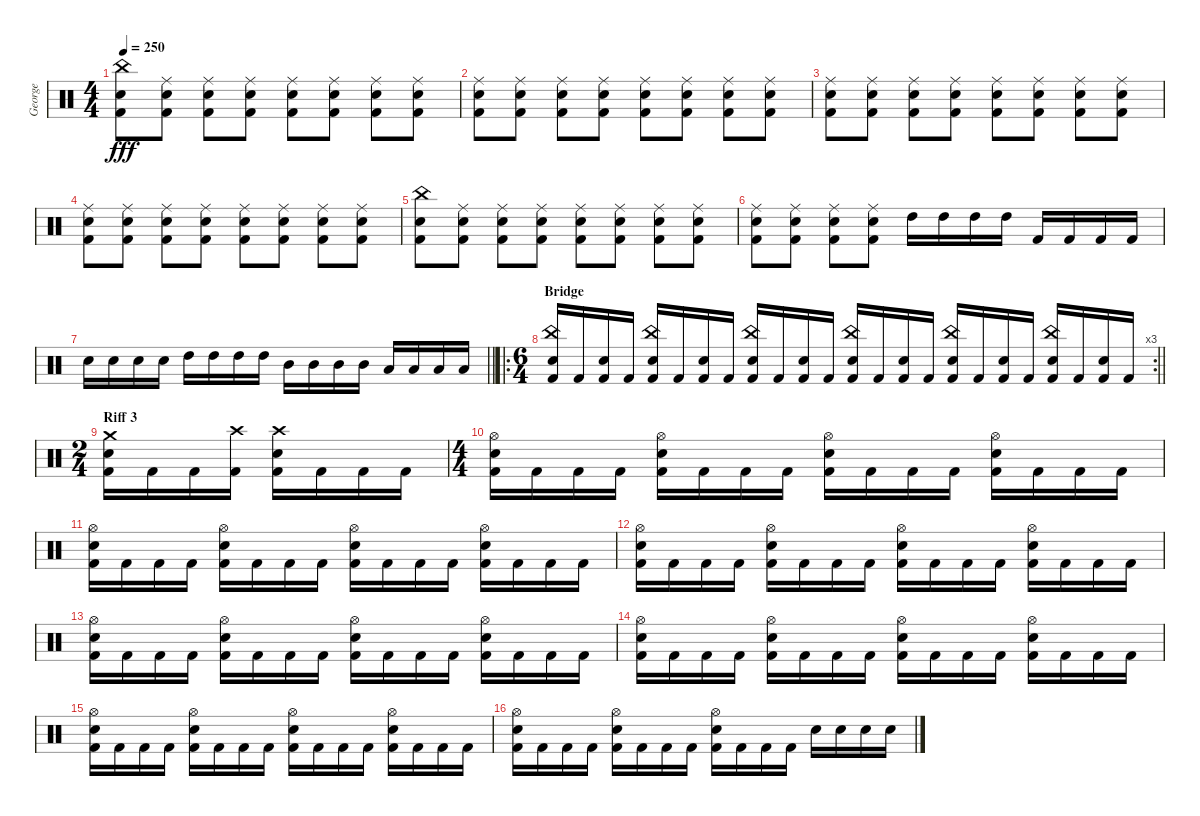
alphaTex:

\track ("George" "George") {instrument percussion}
\staff {score}
\articulation defaults
\ts (4 4)
\tempo 250
\clef neutral
\ks c
("Snare (hit) 2" "China (hit)" "Kick (hit) 2").8{dy fff} ("Snare (hit) 2" "Ride (middle)" "Kick (hit) 2").8 ("Snare (hit) 2" "Ride (middle)" "Kick (hit) 2").8 ("Snare (hit) 2" "Ride (middle)" "Kick (hit) 2").8 ("Snare (hit) 2" "Ride (middle)" "Kick (hit) 2").8 ("Snare (hit) 2" "Ride (middle)" "Kick (hit) 2").8 ("Snare (hit) 2" "Ride (middle)" "Kick (hit) 2").8 ("Snare (hit) 2" "Ride (middle)" "Kick (hit) 2").8 |
("Snare (hit) 2" "Ride (middle)" "Kick (hit) 2").8 ("Snare (hit) 2" "Ride (middle)" "Kick (hit) 2").8 ("Snare (hit) 2" "Ride (middle)" "Kick (hit) 2").8 ("Snare (hit) 2" "Ride (middle)" "Kick (hit) 2").8 ("Snare (hit) 2" "Ride (middle)" "Kick (hit) 2").8 ("Snare (hit) 2" "Ride (middle)" "Kick (hit) 2").8 ("Snare (hit) 2" "Ride (middle)" "Kick (hit) 2").8 ("Snare (hit) 2" "Ride (middle)" "Kick (hit) 2").8 |
("Snare (hit) 2" "Ride (middle)" "Kick (hit) 2").8 ("Snare (hit) 2" "Ride (middle)" "Kick (hit) 2").8 ("Snare (hit) 2" "Ride (middle)" "Kick (hit) 2").8 ("Snare (hit) 2" "Ride (middle)" "Kick (hit) 2").8 ("Snare (hit) 2" "Ride (middle)" "Kick (hit) 2").8 ("Snare (hit) 2" "Ride (middle)" "Kick (hit) 2").8 ("Snare (hit) 2" "Ride (middle)" "Kick (hit) 2").8 ("Snare (hit) 2" "Ride (middle)" "Kick (hit) 2").8 |
("Snare (hit) 2" "Ride (middle)" "Kick (hit) 2").8 ("Snare (hit) 2" "Ride (middle)" "Kick (hit) 2").8 ("Snare (hit) 2" "Ride (middle)" "Kick (hit) 2").8 ("Snare (hit) 2" "Ride (middle)" "Kick (hit) 2").8 ("Snare (hit) 2" "Ride (middle)" "Kick (hit) 2").8 ("Snare (hit) 2" "Ride (middle)" "Kick (hit) 2").8 ("Snare (hit) 2" "Ride (middle)" "Kick (hit) 2").8 ("Snare (hit) 2" "Ride (middle)" "Kick (hit) 2").8 |
("Snare (hit) 2" "China (hit)" "Kick (hit) 2").8 ("Snare (hit) 2" "Ride (middle)" "Kick (hit) 2").8 ("Snare (hit) 2" "Ride (middle)" "Kick (hit) 2").8 ("Snare (hit) 2" "Ride (middle)" "Kick (hit) 2").8 ("Snare (hit) 2" "Ride (middle)" "Kick (hit) 2").8 ("Snare (hit) 2" "Ride (middle)" "Kick (hit) 2").8 ("Snare (hit) 2" "Ride (middle)" "Kick (hit) 2").8 ("Snare (hit) 2" "Ride (middle)" "Kick (hit) 2").8 |
("Snare (hit) 2" "Ride (middle)" "Kick (hit) 2").8 ("Snare (hit) 2" "Ride (middle)" "Kick (hit) 2").8 ("Snare (hit) 2" "Ride (middle)" "Kick (hit) 2").8 ("Snare (hit) 2" "Ride (middle)" "Kick (hit) 2").8 "High Tom (hit)".16 "High Tom (hit)".16 "High Tom (hit)".16 "High Tom (hit)".16 "Kick (hit) 2".16 "Kick (hit) 2".16 "Kick (hit) 2".16 "Kick (hit) 2".16 |
\barLineRight lightlight "Snare (hit) 2".16 "Snare (hit) 2".16 "Snare (hit) 2".16 "Snare (hit) 2".16 "High Tom (hit)".16 "High Tom (hit)".16 "High Tom (hit)".16 "High Tom (hit)".16 "Mid Tom (hit)".16 "Mid Tom (hit)".16 "Mid Tom (hit)".16 "Mid Tom (hit)".16 "Low Tom (hit)".16 "Low Tom (hit)".16 "Low Tom (hit)".16 "Low Tom (hit)".16
|
\ro
\rc 3
\ts (6 4)
\section ("" "Bridge")
\barLineRight lightlight
("China (hit)" "Snare (hit) 2" "Kick (hit) 2").16 "Kick (hit) 2".16 ("Snare (hit) 2" "Kick (hit) 2").16 "Kick (hit) 2".16 ("China (hit)" "Snare (hit) 2" "Kick (hit) 2").16 "Kick (hit) 2".16 ("Snare (hit) 2" "Kick (hit) 2").16 "Kick (hit) 2".16 ("China (hit)" "Snare (hit) 2" "Kick (hit) 2").16 "Kick (hit) 2".16 ("Snare (hit) 2" "Kick (hit) 2").16 "Kick (hit) 2".16 ("China (hit)" "Snare (hit) 2" "Kick (hit) 2").16 "Kick (hit) 2".16 ("Snare (hit) 2" "Kick (hit) 2").16 "Kick (hit) 2".16 ("China (hit)" "Snare (hit) 2" "Kick (hit) 2").16 "Kick (hit) 2".16 ("Snare (hit) 2" "Kick (hit) 2").16 "Kick (hit) 2".16 ("China (hit)" "Snare (hit) 2" "Kick (hit) 2").16 "Kick (hit) 2".16 ("Snare (hit) 2" "Kick (hit) 2").16 "Kick (hit) 2".16 |
\ts (2 4)
\section ("" "Riff 3")
("Crash medium (hit)" "Snare (hit) 2" "Kick (hit) 2").16 "Kick (hit) 2".16 "Kick (hit) 2".16 ("Crash high (hit)" "Kick (hit) 2").16 ("Crash high (hit)" "Snare (hit) 2" "Kick (hit) 2").16 "Kick (hit) 2".16 "Kick (hit) 2".16 "Kick (hit) 2".16 |
\ts (4 4)
("Hi-Hat (open)" "Snare (hit) 2" "Kick (hit) 2").16 "Kick (hit) 2".16 "Kick (hit) 2".16 "Kick (hit) 2".16 ("Hi-Hat (open)" "Snare (hit) 2" "Kick (hit) 2").16 "Kick (hit) 2".16 "Kick (hit) 2".16 "Kick (hit) 2".16 ("Hi-Hat (open)" "Snare (hit) 2" "Kick (hit) 2").16 "Kick (hit) 2".16 "Kick (hit) 2".16 "Kick (hit) 2".16 ("Hi-Hat (open)" "Snare (hit) 2" "Kick (hit) 2").16 "Kick (hit) 2".16 "Kick (hit) 2".16 "Kick (hit) 2".16 |
("Hi-Hat (open)" "Snare (hit) 2" "Kick (hit) 2").16 "Kick (hit) 2".16 "Kick (hit) 2".16 "Kick (hit) 2".16 ("Hi-Hat (open)" "Snare (hit) 2" "Kick (hit) 2").16 "Kick (hit) 2".16 "Kick (hit) 2".16 "Kick (hit) 2".16 ("Hi-Hat (open)" "Snare (hit) 2" "Kick (hit) 2").16 "Kick (hit) 2".16 "Kick (hit) 2".16 "Kick (hit) 2".16 ("Hi-Hat (open)" "Snare (hit) 2" "Kick (hit) 2").16 "Kick (hit) 2".16 "Kick (hit) 2".16 "Kick (hit) 2".16 |
("Hi-Hat (open)" "Snare (hit) 2" "Kick (hit) 2").16 "Kick (hit) 2".16 "Kick (hit) 2".16 "Kick (hit) 2".16 ("Hi-Hat (open)" "Snare (hit) 2" "Kick (hit) 2").16 "Kick (hit) 2".16 "Kick (hit) 2".16 "Kick (hit) 2".16 ("Hi-Hat (open)" "Snare (hit) 2" "Kick (hit) 2").16 "Kick (hit) 2".16 "Kick (hit) 2".16 "Kick (hit) 2".16 ("Hi-Hat (open)" "Snare (hit) 2" "Kick (hit) 2").16 "Kick (hit) 2".16 "Kick (hit) 2".16 "Kick (hit) 2".16 |
("Hi-Hat (open)" "Snare (hit) 2" "Kick (hit) 2").16 "Kick (hit) 2".16 "Kick (hit) 2".16 "Kick (hit) 2".16 ("Hi-Hat (open)" "Snare (hit) 2" "Kick (hit) 2").16 "Kick (hit) 2".16 "Kick (hit) 2".16 "Kick (hit) 2".16 ("Hi-Hat (open)" "Snare (hit) 2" "Kick (hit) 2").16 "Kick (hit) 2".16 "Kick (hit) 2".16 "Kick (hit) 2".16 ("Hi-Hat (open)" "Snare (hit) 2" "Kick (hit) 2").16 "Kick (hit) 2".16 "Kick (hit) 2".16 "Kick (hit) 2".16 |
("Hi-Hat (open)" "Snare (hit) 2" "Kick (hit) 2").16 "Kick (hit) 2".16 "Kick (hit) 2".16 "Kick (hit) 2".16 ("Hi-Hat (open)" "Snare (hit) 2" "Kick (hit) 2").16 "Kick (hit) 2".16 "Kick (hit) 2".16 "Kick (hit) 2".16 ("Hi-Hat (open)" "Snare (hit) 2" "Kick (hit) 2").16 "Kick (hit) 2".16 "Kick (hit) 2".16 "Kick (hit) 2".16 ("Hi-Hat (open)" "Snare (hit) 2" "Kick (hit) 2").16 "Kick (hit) 2".16 "Kick (hit) 2".16 "Kick (hit) 2".16 |
("Hi-Hat (open)" "Snare (hit) 2" "Kick (hit) 2").16 "Kick (hit) 2".16 "Kick (hit) 2".16 "Kick (hit) 2".16 ("Hi-Hat (open)" "Snare (hit) 2" "Kick (hit) 2").16 "Kick (hit) 2".16 "Kick (hit) 2".16 "Kick (hit) 2".16 ("Hi-Hat (open)" "Snare (hit) 2" "Kick (hit) 2").16 "Kick (hit) 2".16 "Kick (hit) 2".16 "Kick (hit) 2".16 ("Hi-Hat (open)" "Snare (hit) 2" "Kick (hit) 2").16 "Kick (hit) 2".16 "Kick (hit) 2".16 "Kick (hit) 2".16 |
("Hi-Hat (open)" "Snare (hit) 2" "Kick (hit) 2").16 "Kick (hit) 2".16 "Kick (hit) 2".16 "Kick (hit) 2".16 ("Hi-Hat (open)" "Snare (hit) 2" "Kick (hit) 2").16 "Kick (hit) 2".16 "Kick (hit) 2".16 "Kick (hit) 2".16 ("Hi-Hat (open)" "Snare (hit) 2" "Kick (hit) 2").16 "Kick (hit) 2".16 "Kick (hit) 2".16 "Kick (hit) 2".16 "Snare (hit) 2".16 "Snare (hit) 2".16 "Snare (hit) 2".16 "Snare (hit) 2".16
